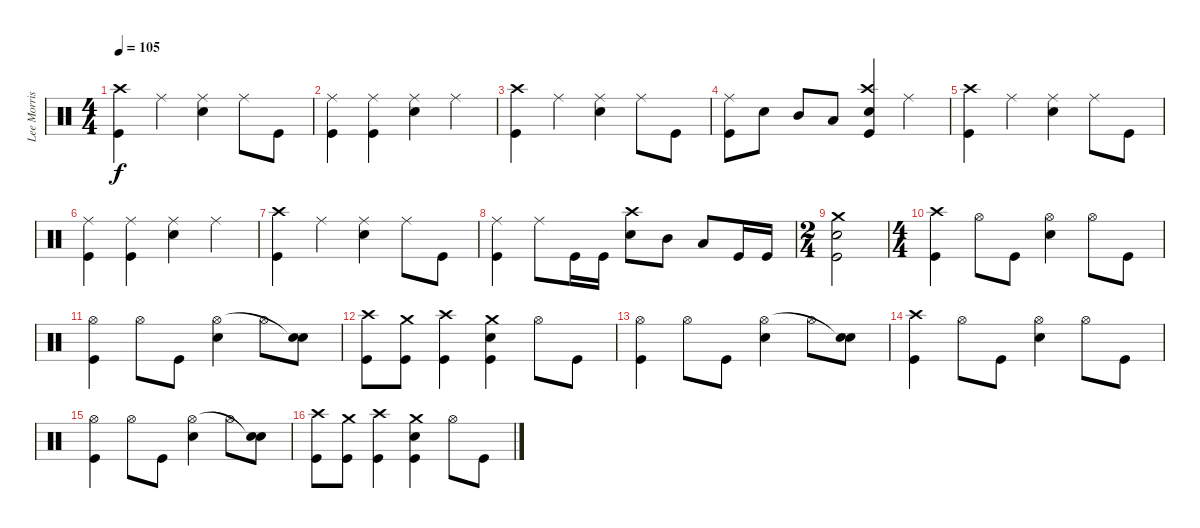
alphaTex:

\track ("Lee Morris" "Lee Morris") {instrument percussion}
\staff {score}
\articulation defaults
\ts (4 4)
\tempo 105
\clef neutral
\ks c
("Kick (hit)" "Crash high (hit)").4{dy f} "Ride (middle)".4 ("Snare (hit) 2" "Ride (middle)").4 "Ride (middle)".8 "Kick (hit)".8 |
("Kick (hit)" "Ride (middle)").4 ("Kick (hit)" "Ride (middle)").4 ("Snare (hit) 2" "Ride (middle)").4 "Ride (middle)".4 |
("Kick (hit)" "Crash high (hit)").4 "Ride (middle)".4 ("Snare (hit) 2" "Ride (middle)").4 "Ride (middle)".8 "Kick (hit)".8 |
("Kick (hit)" "Ride (middle)").8 "Snare (hit) 2".8 "Mid Tom (hit)".8 "Low Tom (hit)".8 ("Kick (hit)" "Snare (hit) 2" "Crash high (hit)").4 "Ride (middle)".4 |
("Kick (hit)" "Crash high (hit)").4 "Ride (middle)".4 ("Snare (hit) 2" "Ride (middle)").4 "Ride (middle)".8 "Kick (hit)".8 |
("Kick (hit)" "Ride (middle)").4 ("Kick (hit)" "Ride (middle)").4 ("Snare (hit) 2" "Ride (middle)").4 "Ride (middle)".4 |
("Kick (hit)" "Crash high (hit)").4 "Ride (middle)".4 ("Snare (hit) 2" "Ride (middle)").4 "Ride (middle)".8 "Kick (hit)".8 |
("Kick (hit)" "Ride (middle)").4 "Ride (middle)".8 "Kick (hit)".16 "Kick (hit)".16 ("Snare (hit) 2" "Crash high (hit)").8 "Mid Tom (hit)".8 "Low Tom (hit)".8 "Kick (hit)".16 "Kick (hit)".16 |
\ts (2 4)
("Kick (hit)" "Snare (hit) 2" "Crash medium (hit)").2 |
\ts (4 4)
("Kick (hit)" "Crash high (hit)").4 "Hi-Hat (open)".8 "Kick (hit)".8 ("Snare (hit) 2" "Hi-Hat (open)").4 "Hi-Hat (open)".8 "Kick (hit)".8 |
("Kick (hit)" "Hi-Hat (open)").4 "Hi-Hat (open)".8 "Kick (hit)".8 ("Snare (hit) 2" "Hi-Hat (open)").4 "Hi-Hat (open)".8 ("Snare (hit) 2" "Snare (hit)"{t}).8 |
("Kick (hit)" "Crash high (hit)").8 ("Kick (hit)" "Crash medium (hit)").8 ("Kick (hit)" "Crash high (hit)").4 ("Kick (hit)" "Snare (hit) 2" "Crash medium (hit)").4 "Hi-Hat (open)".8 "Kick (hit)".8 |
("Kick (hit)" "Hi-Hat (open)").4 "Hi-Hat (open)".8 "Kick (hit)".8 ("Snare (hit) 2" "Hi-Hat (open)").4 "Hi-Hat (open)".8 ("Snare (hit) 2" "Snare (hit)"{t}).8 |
("Kick (hit)" "Crash high (hit)").4 "Hi-Hat (open)".8 "Kick (hit)".8 ("Snare (hit) 2" "Hi-Hat (open)").4 "Hi-Hat (open)".8 "Kick (hit)".8 |
("Kick (hit)" "Hi-Hat (open)").4 "Hi-Hat (open)".8 "Kick (hit)".8 ("Snare (hit) 2" "Hi-Hat (open)").4 "Hi-Hat (open)".8 ("Snare (hit) 2" "Snare (hit)"{t}).8 |
("Kick (hit)" "Crash high (hit)").8 ("Kick (hit)" "Crash medium (hit)").8 ("Kick (hit)" "Crash high (hit)").4 ("Kick (hit)" "Snare (hit) 2" "Crash medium (hit)").4 "Hi-Hat (open)".8 "Kick (hit)".8
